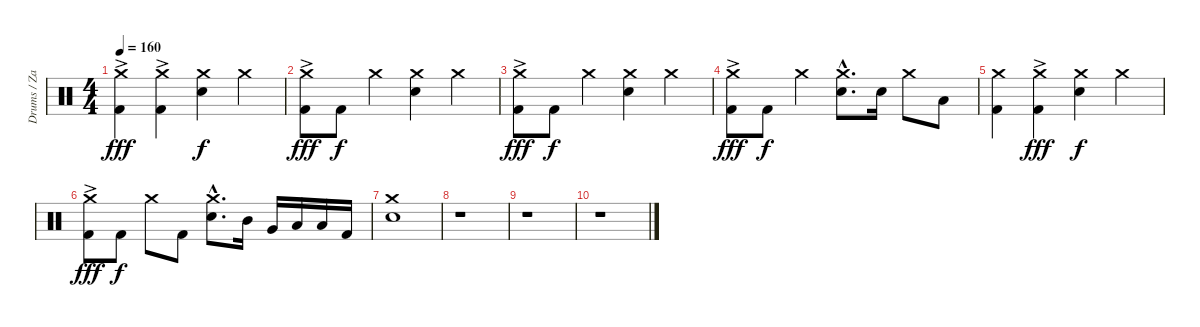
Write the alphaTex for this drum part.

\track ("Drums / Zac Hill" "Drums / Za") {instrument percussion}
\staff {score}
\articulation defaults
\ts (4 4)
\tempo 160
\clef neutral
\ks c
("Crash medium (hit)"{ac} "Kick (hit) 2").4{dy fff} ("Crash medium (hit)"{ac} "Kick (hit) 2").4 ("Crash medium (hit)" "Electric Snare (hit)").4{dy f} "Crash medium (hit)".4 |
("Crash medium (hit)"{ac} "Kick (hit) 2").8{dy fff} "Kick (hit) 2".8{dy f} "Crash medium (hit)".4 ("Crash medium (hit)" "Electric Snare (hit)").4 "Crash medium (hit)".4 |
("Crash medium (hit)"{ac} "Kick (hit) 2").8{dy fff} "Kick (hit) 2".8{dy f} "Crash medium (hit)".4 ("Crash medium (hit)" "Electric Snare (hit)").4 "Crash medium (hit)".4 |
("Crash medium (hit)"{ac} "Kick (hit) 2").8{dy fff} "Kick (hit) 2".8{dy f} "Crash medium (hit)".4 ("Crash medium (hit)"{hac} "Electric Snare (hit)"{hac}).8{d} "Electric Snare (hit)".16 "Crash medium (hit)".8 "Low Tom (hit)".8 |
("Crash medium (hit)" "Kick (hit) 2").4 ("Crash medium (hit)"{ac} "Kick (hit) 2").4{dy fff} ("Crash medium (hit)" "Electric Snare (hit)").4{dy f} "Crash medium (hit)".4 |
("Crash medium (hit)"{ac} "Kick (hit) 2").8{dy fff} "Kick (hit) 2".8{dy f} "Crash medium (hit)".8 "Kick (hit) 2".8 ("Crash medium (hit)"{hac} "Electric Snare (hit)"{hac}).8{d} "Mid Tom (hit)".16 "Very Low Tom (hit)".16 "Low Tom (hit)".16 "Low Floor Tom (hit)".16 "Kick (hit) 2".16 |
("Crash medium (hit)" "Electric Snare (hit)").1 |
r.1 |
r.1 |
r.1
